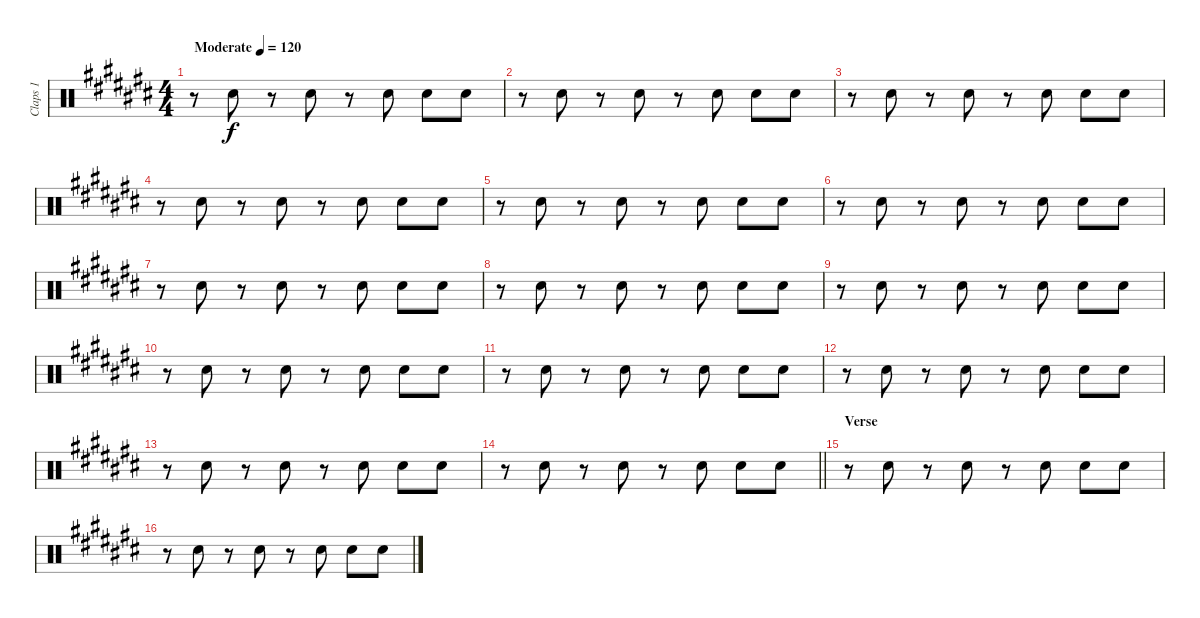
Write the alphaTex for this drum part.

\track ("Claps 1" "Claps 1") {instrument percussion}
\staff {score}
\articulation defaults
\ts (4 4)
\tempo (120 "Moderate")
\clef neutral
\ks c#
r.8{dy f} "Hand Clap (hit)".8 r.8 "Hand Clap (hit)".8 r.8 "Hand Clap (hit)".8 "Hand Clap (hit)".8 "Hand Clap (hit)".8 |
r.8 "Hand Clap (hit)".8 r.8 "Hand Clap (hit)".8 r.8 "Hand Clap (hit)".8 "Hand Clap (hit)".8 "Hand Clap (hit)".8 |
r.8 "Hand Clap (hit)".8 r.8 "Hand Clap (hit)".8 r.8 "Hand Clap (hit)".8 "Hand Clap (hit)".8 "Hand Clap (hit)".8 |
r.8 "Hand Clap (hit)".8 r.8 "Hand Clap (hit)".8 r.8 "Hand Clap (hit)".8 "Hand Clap (hit)".8 "Hand Clap (hit)".8 |
r.8 "Hand Clap (hit)".8 r.8 "Hand Clap (hit)".8 r.8 "Hand Clap (hit)".8 "Hand Clap (hit)".8 "Hand Clap (hit)".8 |
r.8 "Hand Clap (hit)".8 r.8 "Hand Clap (hit)".8 r.8 "Hand Clap (hit)".8 "Hand Clap (hit)".8 "Hand Clap (hit)".8 |
r.8 "Hand Clap (hit)".8 r.8 "Hand Clap (hit)".8 r.8 "Hand Clap (hit)".8 "Hand Clap (hit)".8 "Hand Clap (hit)".8 |
r.8 "Hand Clap (hit)".8 r.8 "Hand Clap (hit)".8 r.8 "Hand Clap (hit)".8 "Hand Clap (hit)".8 "Hand Clap (hit)".8 |
r.8 "Hand Clap (hit)".8 r.8 "Hand Clap (hit)".8 r.8 "Hand Clap (hit)".8 "Hand Clap (hit)".8 "Hand Clap (hit)".8 |
r.8 "Hand Clap (hit)".8 r.8 "Hand Clap (hit)".8 r.8 "Hand Clap (hit)".8 "Hand Clap (hit)".8 "Hand Clap (hit)".8 |
r.8 "Hand Clap (hit)".8 r.8 "Hand Clap (hit)".8 r.8 "Hand Clap (hit)".8 "Hand Clap (hit)".8 "Hand Clap (hit)".8 |
r.8 "Hand Clap (hit)".8 r.8 "Hand Clap (hit)".8 r.8 "Hand Clap (hit)".8 "Hand Clap (hit)".8 "Hand Clap (hit)".8 |
r.8 "Hand Clap (hit)".8 r.8 "Hand Clap (hit)".8 r.8 "Hand Clap (hit)".8 "Hand Clap (hit)".8 "Hand Clap (hit)".8 |
\barLineRight lightlight
r.8 "Hand Clap (hit)".8 r.8 "Hand Clap (hit)".8 r.8 "Hand Clap (hit)".8 "Hand Clap (hit)".8 "Hand Clap (hit)".8 |
\section ("" "Verse")
r.8 "Hand Clap (hit)".8 r.8 "Hand Clap (hit)".8 r.8 "Hand Clap (hit)".8 "Hand Clap (hit)".8 "Hand Clap (hit)".8 |
r.8 "Hand Clap (hit)".8 r.8 "Hand Clap (hit)".8 r.8 "Hand Clap (hit)".8 "Hand Clap (hit)".8 "Hand Clap (hit)".8
